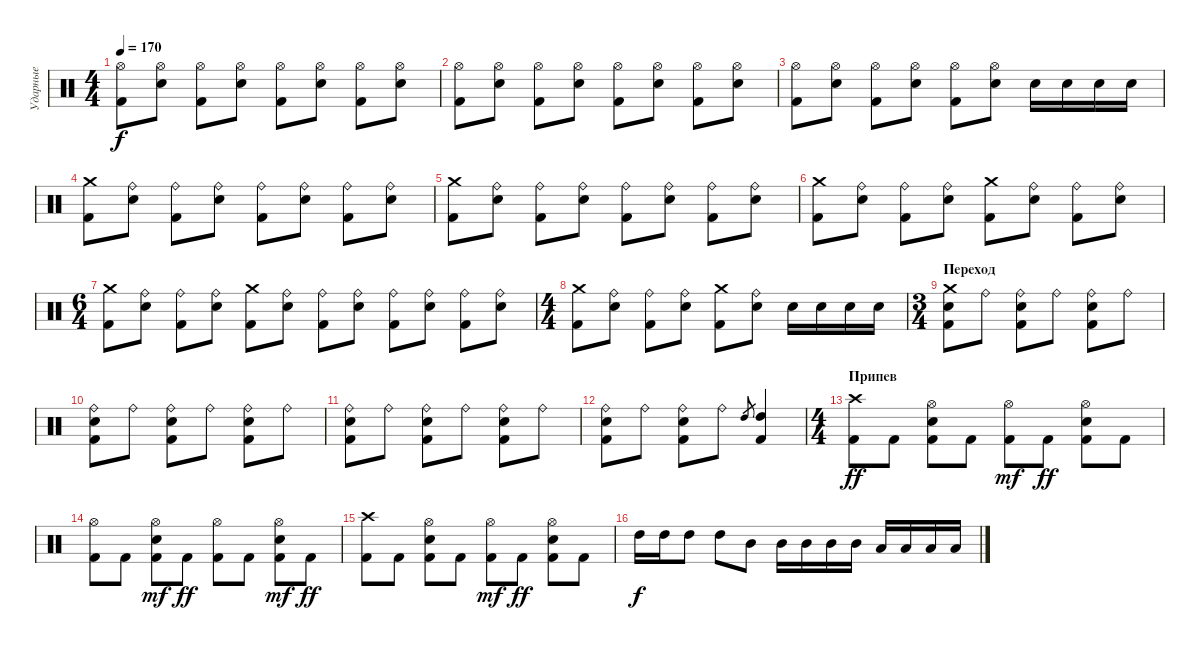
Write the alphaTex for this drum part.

\track ("Ударные" "Ударные") {instrument percussion}
\staff {score}
\articulation defaults
\ts (4 4)
\tempo 170
\clef neutral
\ks c
("Hi-Hat (open)" "Kick (hit) 2").8{dy f} ("Hi-Hat (open)" "Electric Snare (hit)").8 ("Hi-Hat (open)" "Kick (hit) 2").8 ("Hi-Hat (open)" "Electric Snare (hit)").8 ("Hi-Hat (open)" "Kick (hit) 2").8 ("Hi-Hat (open)" "Electric Snare (hit)").8 ("Hi-Hat (open)" "Kick (hit) 2").8 ("Hi-Hat (open)" "Electric Snare (hit)").8 |
("Hi-Hat (open)" "Kick (hit) 2").8 ("Hi-Hat (open)" "Electric Snare (hit)").8 ("Hi-Hat (open)" "Kick (hit) 2").8 ("Hi-Hat (open)" "Electric Snare (hit)").8 ("Hi-Hat (open)" "Kick (hit) 2").8 ("Hi-Hat (open)" "Electric Snare (hit)").8 ("Hi-Hat (open)" "Kick (hit) 2").8 ("Hi-Hat (open)" "Electric Snare (hit)").8 |
("Hi-Hat (open)" "Kick (hit) 2").8 ("Hi-Hat (open)" "Electric Snare (hit)").8 ("Hi-Hat (open)" "Kick (hit) 2").8 ("Hi-Hat (open)" "Electric Snare (hit)").8 ("Hi-Hat (open)" "Kick (hit) 2").8 ("Hi-Hat (open)" "Electric Snare (hit)").8 "Electric Snare (hit)".16 "Electric Snare (hit)".16 "Electric Snare (hit)".16 "Electric Snare (hit)".16 |
("Crash medium (hit)" "Kick (hit) 2").8 ("Ride (bell)" "Electric Snare (hit)").8 ("Ride (bell)" "Kick (hit) 2").8 ("Ride (bell)" "Electric Snare (hit)").8 ("Ride (bell)" "Kick (hit) 2").8 ("Ride (bell)" "Electric Snare (hit)").8 ("Ride (bell)" "Kick (hit) 2").8 ("Ride (bell)" "Electric Snare (hit)").8 |
("Crash medium (hit)" "Kick (hit) 2").8 ("Ride (bell)" "Electric Snare (hit)").8 ("Ride (bell)" "Kick (hit) 2").8 ("Ride (bell)" "Electric Snare (hit)").8 ("Ride (bell)" "Kick (hit) 2").8 ("Ride (bell)" "Electric Snare (hit)").8 ("Ride (bell)" "Kick (hit) 2").8 ("Ride (bell)" "Electric Snare (hit)").8 |
("Crash medium (hit)" "Kick (hit) 2").8 ("Ride (bell)" "Electric Snare (hit)").8 ("Ride (bell)" "Kick (hit) 2").8 ("Ride (bell)" "Electric Snare (hit)").8 ("Crash medium (hit)" "Kick (hit) 2").8 ("Ride (bell)" "Electric Snare (hit)").8 ("Ride (bell)" "Kick (hit) 2").8 ("Ride (bell)" "Electric Snare (hit)").8 |
\ts (6 4)
("Crash medium (hit)" "Kick (hit) 2").8 ("Ride (bell)" "Electric Snare (hit)").8 ("Ride (bell)" "Kick (hit) 2").8 ("Ride (bell)" "Electric Snare (hit)").8 ("Crash medium (hit)" "Kick (hit) 2").8 ("Ride (bell)" "Electric Snare (hit)").8 ("Ride (bell)" "Kick (hit) 2").8 ("Ride (bell)" "Electric Snare (hit)").8 ("Ride (bell)" "Kick (hit) 2").8 ("Ride (bell)" "Electric Snare (hit)").8 ("Ride (bell)" "Kick (hit) 2").8 ("Ride (bell)" "Electric Snare (hit)").8 |
\ts (4 4)
("Crash medium (hit)" "Kick (hit) 2").8 ("Ride (bell)" "Electric Snare (hit)").8 ("Ride (bell)" "Kick (hit) 2").8 ("Ride (bell)" "Electric Snare (hit)").8 ("Crash medium (hit)" "Kick (hit) 2").8 ("Ride (bell)" "Electric Snare (hit)").8 "Electric Snare (hit)".16 "Electric Snare (hit)".16 "Electric Snare (hit)".16 "Electric Snare (hit)".16 |
\ts (3 4)
\section ("" "Переход")
("Crash medium (hit)" "Kick (hit) 2" "Electric Snare (hit)").8 "Ride (bell)".8 ("Ride (bell)" "Kick (hit) 2" "Electric Snare (hit)").8 "Ride (bell)".8 ("Ride (bell)" "Kick (hit) 2" "Electric Snare (hit)").8 "Ride (bell)".8 |
("Ride (bell)" "Kick (hit) 2" "Electric Snare (hit)").8 "Ride (bell)".8 ("Ride (bell)" "Kick (hit) 2" "Electric Snare (hit)").8 "Ride (bell)".8 ("Ride (bell)" "Kick (hit) 2" "Electric Snare (hit)").8 "Ride (bell)".8 |
("Ride (bell)" "Kick (hit) 2" "Electric Snare (hit)").8 "Ride (bell)".8 ("Ride (bell)" "Kick (hit) 2" "Electric Snare (hit)").8 "Ride (bell)".8 ("Ride (bell)" "Kick (hit) 2" "Electric Snare (hit)").8 "Ride (bell)".8 |
("Ride (bell)" "Kick (hit) 2" "Electric Snare (hit)").8 "Ride (bell)".8 ("Ride (bell)" "Kick (hit) 2" "Electric Snare (hit)").8 "Ride (bell)".8 "High Tom (hit)".8{gr} ("Kick (hit) 2" "High Tom (hit)").4 |
\ts (4 4)
\section ("" "Припев")
("Crash high (hit)" "Kick (hit) 2").8{dy ff} "Kick (hit) 2".8 ("Hi-Hat (open)" "Kick (hit) 2" "Electric Snare (hit)").8 "Kick (hit) 2".8 ("Kick (hit) 2" "Hi-Hat (open)").8{dy mf} "Kick (hit) 2".8{dy ff} ("Kick (hit) 2" "Hi-Hat (open)" "Electric Snare (hit)").8 "Kick (hit) 2".8 |
("Hi-Hat (open)" "Kick (hit) 2").8 "Kick (hit) 2".8 ("Kick (hit) 2" "Electric Snare (hit)" "Hi-Hat (open)").8{dy mf} "Kick (hit) 2".8{dy ff} ("Hi-Hat (open)" "Kick (hit) 2").8 "Kick (hit) 2".8 ("Kick (hit) 2" "Electric Snare (hit)" "Hi-Hat (open)").8{dy mf} "Kick (hit) 2".8{dy ff} |
("Crash high (hit)" "Kick (hit) 2").8 "Kick (hit) 2".8 ("Hi-Hat (open)" "Kick (hit) 2" "Electric Snare (hit)").8 "Kick (hit) 2".8 ("Kick (hit) 2" "Hi-Hat (open)").8{dy mf} "Kick (hit) 2".8{dy ff} ("Kick (hit) 2" "Hi-Hat (open)" "Electric Snare (hit)").8 "Kick (hit) 2".8 |
"High Tom (hit)".16{dy f} "High Tom (hit)".16 "High Tom (hit)".8 "High Tom (hit)".8 "Mid Tom (hit)".8 "Mid Tom (hit)".16 "Mid Tom (hit)".16 "Mid Tom (hit)".16 "Mid Tom (hit)".16 "Low Tom (hit)".16 "Low Tom (hit)".16 "Low Tom (hit)".16 "Low Tom (hit)".16
